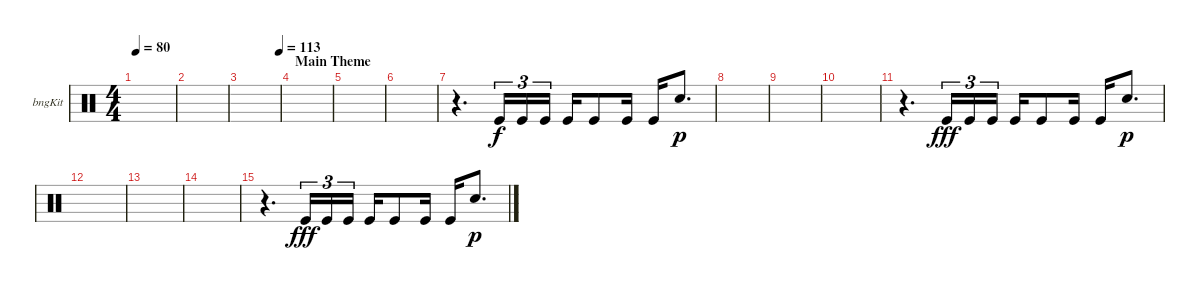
\defaultSystemsLayout 4
\bracketExtendMode groupsimilarinstruments
\firstSystemTrackNameOrientation horizontal
\otherSystemsTrackNameOrientation horizontal
\track ("Bongos" "bngKit") {instrument percussion}
\staff {score}
\articulation defaults
\ts (4 4)
\tempo 80
\clef neutral
\scale
0.333333
\ks c
|
\scale
0.333333 |
\tempo (113 1)
\scale
0.333333 |
\section ("" "Main Theme")
\scale
0.333333 |
\scale
0.333333 |
\scale
0.333333 |
\scale
0.333333 r.4{d} "Kick (hit)".16{tu (3 2)} "Kick (hit)".16{tu (3 2)} "Kick (hit)".16{tu (3 2)} "Kick (hit)".16 "Kick (hit)".8 "Kick (hit)".16 "Kick (hit)".16 "Snare (hit) 2".8{d dy p} |
\scale
0.333333 |
\scale
0.333333 |
\scale
0.333333 |
\scale
0.333333 r.4{d} "Kick (hit)".16{tu (3 2) dy fff} "Kick (hit)".16{tu (3 2)} "Kick (hit)".16{tu (3 2)} "Kick (hit)".16 "Kick (hit)".8 "Kick (hit)".16 "Kick (hit)".16 "Snare (hit) 2".8{d dy p} |
\scale
0.333333 |
\scale
0.333333 |
\scale
0.333333 |
\scale
0.333333 r.4{d} "Kick (hit)".16{tu (3 2) dy fff} "Kick (hit)".16{tu (3 2)} "Kick (hit)".16{tu (3 2)} "Kick (hit)".16 "Kick (hit)".8 "Kick (hit)".16 "Kick (hit)".16 "Snare (hit) 2".8{d dy p} |
\scale
0.333333
